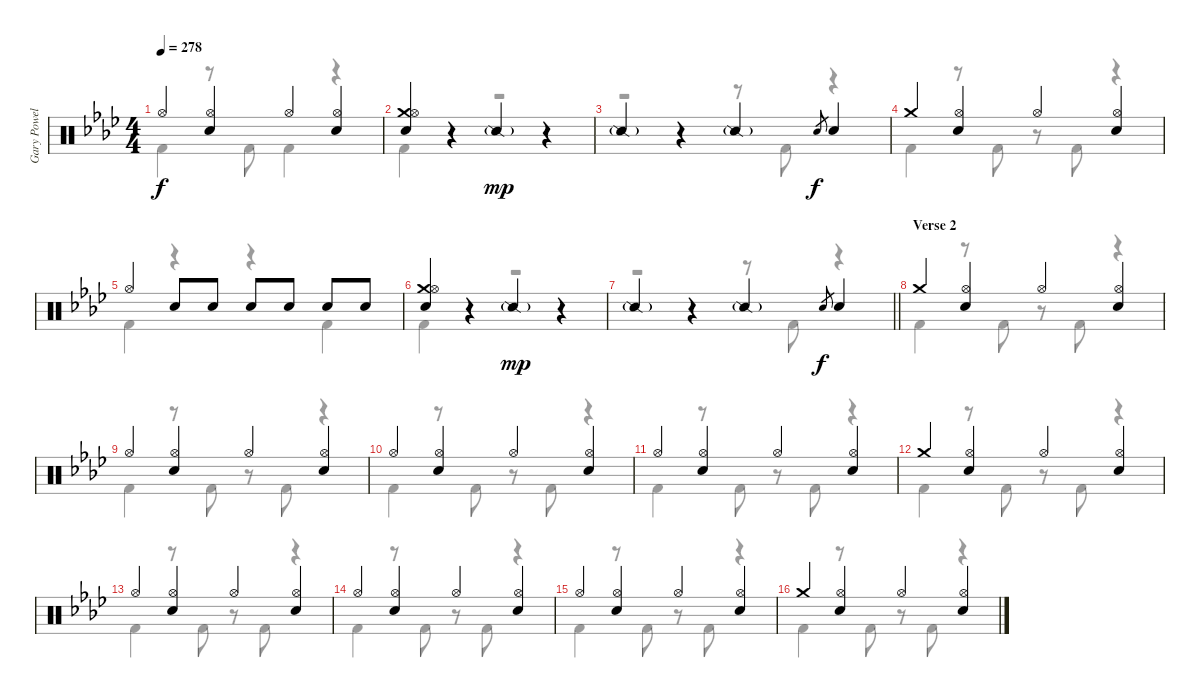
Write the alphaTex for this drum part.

\track ("Gary Powell" "Gary Powel") {instrument percussion}
\staff {score}
\articulation defaults
\voice
\ts (4 4)
\tempo 278
\clef neutral
\ks ab "Hi-Hat (open)".4{dy f}
("Hi-Hat (open)" "Electric Snare (hit)").4 "Hi-Hat (open)".4 ("Hi-Hat (open)" "Electric Snare (hit)").4 |
("Crash medium (hit)" "Hi-Hat (open)" "Electric Snare (hit)").4 r.4 "Snare (side stick) 2"{g}.4{dy mp} r.4 |
"Snare (side stick) 2"{g}.4 r.4 "Snare (side stick) 2"{g}.4 "Electric Snare (hit)".8{gr dy f} "Electric Snare (hit)".4 |
"Crash medium (hit)".4 ("Hi-Hat (open)" "Electric Snare (hit)").4 "Hi-Hat (open)".4 ("Hi-Hat (open)" "Electric Snare (hit)").4 |
"Hi-Hat (open)".4 "Electric Snare (hit)".8 "Electric Snare (hit)".8 "Electric Snare (hit)".8 "Electric Snare (hit)".8 "Electric Snare (hit)".8 "Electric Snare (hit)".8 |
("Crash medium (hit)" "Hi-Hat (open)" "Electric Snare (hit)").4 r.4 "Snare (side stick) 2"{g}.4{dy mp} r.4 |
\barLineRight lightlight "Snare (side stick) 2"{g}.4
r.4 "Snare (side stick) 2"{g}.4 "Electric Snare (hit)".8{gr dy f} "Electric Snare (hit)".4 |
\section ("" "Verse 2")
"Crash medium (hit)".4 ("Hi-Hat (open)" "Electric Snare (hit)").4 "Hi-Hat (open)".4 ("Hi-Hat (open)" "Electric Snare (hit)").4 |
"Hi-Hat (open)".4 ("Hi-Hat (open)" "Electric Snare (hit)").4 "Hi-Hat (open)".4 ("Hi-Hat (open)" "Electric Snare (hit)").4 |
"Hi-Hat (open)".4 ("Hi-Hat (open)" "Electric Snare (hit)").4 "Hi-Hat (open)".4 ("Hi-Hat (open)" "Electric Snare (hit)").4 |
"Hi-Hat (open)".4 ("Hi-Hat (open)" "Electric Snare (hit)").4 "Hi-Hat (open)".4 ("Hi-Hat (open)" "Electric Snare (hit)").4 |
"Crash medium (hit)".4 ("Hi-Hat (open)" "Electric Snare (hit)").4 "Hi-Hat (open)".4 ("Hi-Hat (open)" "Electric Snare (hit)").4 |
"Hi-Hat (open)".4 ("Hi-Hat (open)" "Electric Snare (hit)").4 "Hi-Hat (open)".4 ("Hi-Hat (open)" "Electric Snare (hit)").4 |
"Hi-Hat (open)".4 ("Hi-Hat (open)" "Electric Snare (hit)").4 "Hi-Hat (open)".4 ("Hi-Hat (open)" "Electric Snare (hit)").4 |
"Hi-Hat (open)".4 ("Hi-Hat (open)" "Electric Snare (hit)").4 "Hi-Hat (open)".4 ("Hi-Hat (open)" "Electric Snare (hit)").4 |
"Crash medium (hit)".4 ("Hi-Hat (open)" "Electric Snare (hit)").4 "Hi-Hat (open)".4 ("Hi-Hat (open)" "Electric Snare (hit)").4
\voice
\clef neutral
\ottava regular
\simile none
\ks ab "Kick (hit) 2".4{dy f}
r.8 "Kick (hit) 2".8 "Kick (hit) 2".4 r.4 |
"Kick (hit) 2".4 r.4 r.2 |
r.2 r.8 "Kick (hit) 2".8 r.4 |
"Kick (hit) 2".4 r.8 "Kick (hit) 2".8 r.8 "Kick (hit) 2".8 r.4 |
"Kick (hit) 2".4 r.4 r.4 "Kick (hit) 2".4 |
"Kick (hit) 2".4 r.4 r.2 |
\barLineRight lightlight
r.2 r.8 "Kick (hit) 2".8 r.4 |
"Kick (hit) 2".4 r.8 "Kick (hit) 2".8 r.8 "Kick (hit) 2".8 r.4 |
"Kick (hit) 2".4 r.8 "Kick (hit) 2".8 r.8 "Kick (hit) 2".8 r.4 |
"Kick (hit) 2".4 r.8 "Kick (hit) 2".8 r.8 "Kick (hit) 2".8 r.4 |
"Kick (hit) 2".4 r.8 "Kick (hit) 2".8 r.8 "Kick (hit) 2".8 r.4 |
"Kick (hit) 2".4 r.8 "Kick (hit) 2".8 r.8 "Kick (hit) 2".8 r.4 |
"Kick (hit) 2".4 r.8 "Kick (hit) 2".8 r.8 "Kick (hit) 2".8 r.4 |
"Kick (hit) 2".4 r.8 "Kick (hit) 2".8 r.8 "Kick (hit) 2".8 r.4 |
"Kick (hit) 2".4 r.8 "Kick (hit) 2".8 r.8 "Kick (hit) 2".8 r.4 |
"Kick (hit) 2".4 r.8 "Kick (hit) 2".8 r.8 "Kick (hit) 2".8 r.4
